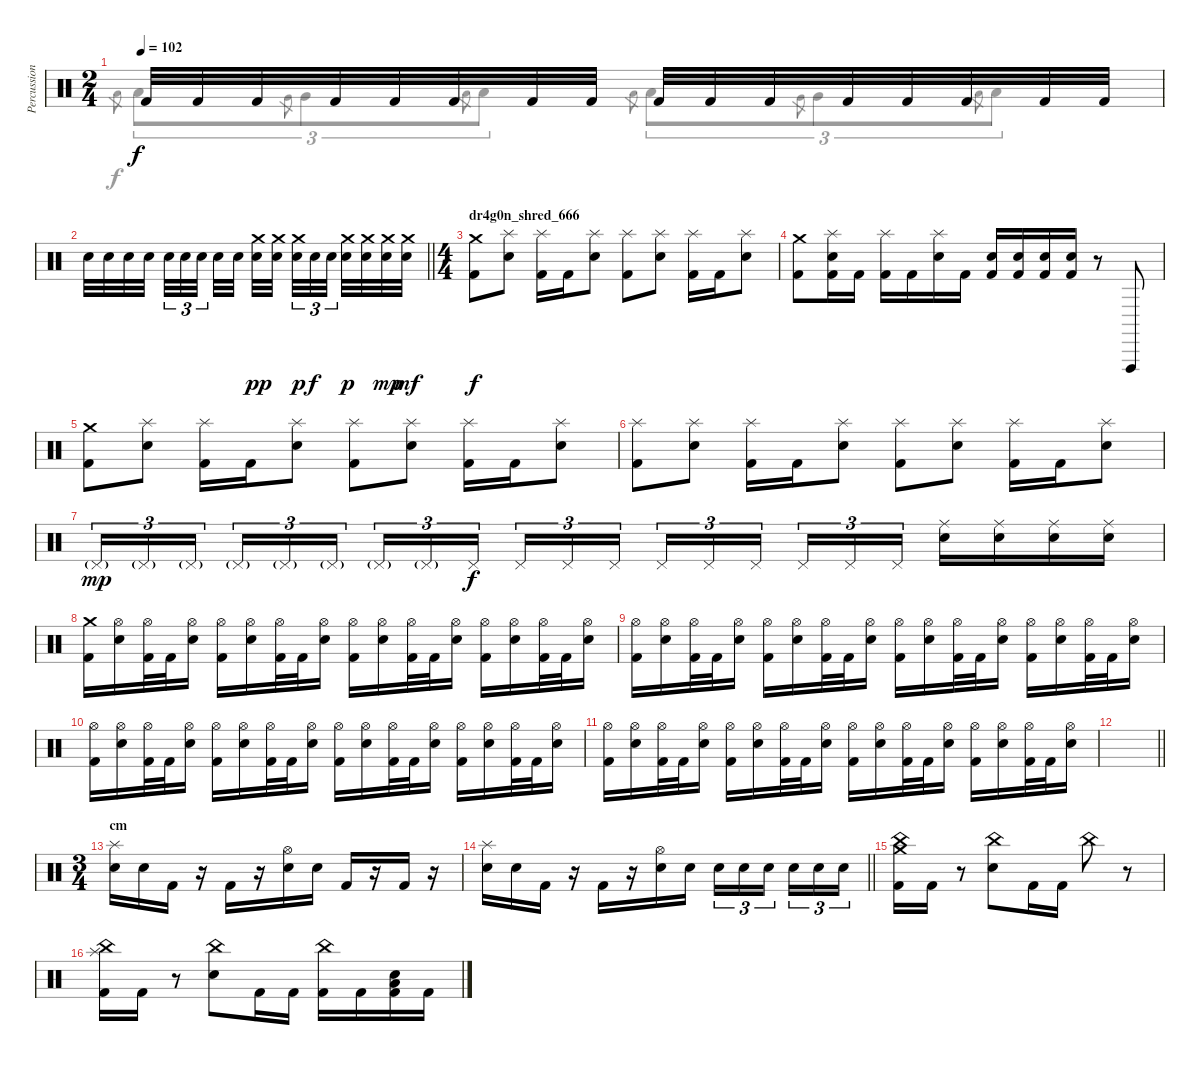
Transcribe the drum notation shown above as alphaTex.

\track ("Percussion" "Percussion") {instrument percussion}
\staff {score}
\articulation defaults
\voice
\ts (2 4)
\tempo 102
\clef neutral
\ks c "Kick (hit) 2".32{dy f} "Kick (hit) 2".32 "Kick (hit) 2".32 "Kick (hit) 2".32 "Kick (hit) 2".32 "Kick (hit) 2".32 "Kick (hit) 2".32 "Kick (hit) 2".32 "Kick (hit) 2".32 "Kick (hit) 2".32 "Kick (hit) 2".32 "Kick (hit) 2".32 "Kick (hit) 2".32 "Kick (hit) 2".32 "Kick (hit) 2".32 "Kick (hit) 2".32
|
\barLineRight lightlight "Electric Snare (hit)".32 "Electric Snare (hit)".32 "Electric Snare (hit)".32 "Electric Snare (hit)".32{beam splitsecondary} "Electric Snare (hit)".32{tu (3 2)} "Electric Snare (hit)".32{tu (3 2)} "Electric Snare (hit)".32{tu (3 2) beam splitsecondary} "Electric Snare (hit)".32 "Electric Snare (hit)".32
("Crash medium (hit)" "Electric Snare (hit)").32{dy pp} ("Crash medium (hit)" "Electric Snare (hit)").32{beam splitsecondary} ("Crash medium (hit)" "Electric Snare (hit)").32{tu (3 2) dy p} "Electric Snare (hit)".32{tu (3 2) dy f} "Electric Snare (hit)".32{tu (3 2) beam splitsecondary} ("Crash medium (hit)" "Electric Snare (hit)").32{dy p} ("Crash medium (hit)" "Electric Snare (hit)").32 ("Crash medium (hit)" "Electric Snare (hit)").32{dy mp} ("Crash medium (hit)" "Electric Snare (hit)").32{dy mf} |
\ts (4 4)
\section ("" "dr4g0n_shred_666")
("Crash medium (hit)" "Kick (hit) 2").8{dy f} ("Splash (hit)" "Electric Snare (hit)").8 ("Splash (hit)" "Kick (hit) 2").16 "Kick (hit) 2".16 ("Splash (hit)" "Electric Snare (hit)").8 ("Splash (hit)" "Kick (hit) 2").8 ("Splash (hit)" "Electric Snare (hit)").8 ("Splash (hit)" "Kick (hit) 2").16 "Kick (hit) 2".16 ("Splash (hit)" "Electric Snare (hit)").8 |
("Crash medium (hit)" "Kick (hit) 2").8 ("Splash (hit)" "Electric Snare (hit)" "Kick (hit) 2").16 "Kick (hit) 2".16 ("Splash (hit)" "Kick (hit) 2").16 "Kick (hit) 2".16 ("Splash (hit)" "Electric Snare (hit)").16 "Kick (hit) 2".16 ("Electric Snare (hit)" "Kick (hit) 2").16 ("Electric Snare (hit)" "Kick (hit) 2").16 ("Electric Snare (hit)" "Kick (hit) 2").16 ("Electric Snare (hit)" "Kick (hit) 2").16 r.8 "Vibraslap (hit)".8 |
("Crash medium (hit)" "Kick (hit) 2").8 ("Splash (hit)" "Electric Snare (hit)").8 ("Splash (hit)" "Kick (hit) 2").16 "Kick (hit) 2".16 ("Splash (hit)" "Electric Snare (hit)").8 ("Splash (hit)" "Kick (hit) 2").8 ("Splash (hit)" "Electric Snare (hit)").8 ("Splash (hit)" "Kick (hit) 2").16 "Kick (hit) 2".16 ("Splash (hit)" "Electric Snare (hit)").8 |
("Splash (hit)" "Kick (hit) 2").8 ("Splash (hit)" "Electric Snare (hit)").8 ("Splash (hit)" "Kick (hit) 2").16 "Kick (hit) 2".16 ("Splash (hit)" "Electric Snare (hit)").8 ("Splash (hit)" "Kick (hit) 2").8 ("Splash (hit)" "Electric Snare (hit)").8 ("Splash (hit)" "Kick (hit) 2").16 "Kick (hit) 2".16 ("Splash (hit)" "Electric Snare (hit)").8 |
"Pedal Hi-Hat (hit)"{g}.16{tu (3 2) dy mp} "Pedal Hi-Hat (hit)"{g}.16{tu (3 2)} "Pedal Hi-Hat (hit)"{g}.16{tu (3 2) beam splitsecondary} "Pedal Hi-Hat (hit)"{g}.16{tu (3 2)} "Pedal Hi-Hat (hit)"{g}.16{tu (3 2)} "Pedal Hi-Hat (hit)"{g}.16{tu (3 2)} "Pedal Hi-Hat (hit)"{g}.16{tu (3 2)} "Pedal Hi-Hat (hit)"{g}.16{tu (3 2)} "Pedal Hi-Hat (hit)".16{tu (3 2) dy f beam splitsecondary} "Pedal Hi-Hat (hit)".16{tu (3 2)} "Pedal Hi-Hat (hit)".16{tu (3 2)} "Pedal Hi-Hat (hit)".16{tu (3 2)} "Pedal Hi-Hat (hit)".16{tu (3 2)} "Pedal Hi-Hat (hit)".16{tu (3 2)} "Pedal Hi-Hat (hit)".16{tu (3 2) beam splitsecondary} "Pedal Hi-Hat (hit)".16{tu (3 2)} "Pedal Hi-Hat (hit)".16{tu (3 2)} "Pedal Hi-Hat (hit)".16{tu (3 2)} ("Ride (middle)" "Electric Snare (hit)").16 ("Ride (middle)" "Electric Snare (hit)").16 ("Ride (middle)" "Electric Snare (hit)").16 ("Ride (middle)" "Electric Snare (hit)").16 |
("Crash medium (hit)" "Kick (hit) 2").16 ("Hi-Hat (open)" "Electric Snare (hit)").16 ("Hi-Hat (open)" "Kick (hit) 2").32 "Kick (hit) 2".32 ("Hi-Hat (open)" "Electric Snare (hit)").16 ("Hi-Hat (open)" "Kick (hit) 2").16 ("Hi-Hat (open)" "Electric Snare (hit)").16 ("Hi-Hat (open)" "Kick (hit) 2").32 "Kick (hit) 2".32 ("Hi-Hat (open)" "Electric Snare (hit)").16 ("Hi-Hat (open)" "Kick (hit) 2").16 ("Hi-Hat (open)" "Electric Snare (hit)").16 ("Hi-Hat (open)" "Kick (hit) 2").32 "Kick (hit) 2".32 ("Hi-Hat (open)" "Electric Snare (hit)").16 ("Hi-Hat (open)" "Kick (hit) 2").16 ("Hi-Hat (open)" "Electric Snare (hit)").16 ("Hi-Hat (open)" "Kick (hit) 2").32 "Kick (hit) 2".32 ("Hi-Hat (open)" "Electric Snare (hit)").16 |
("Hi-Hat (open)" "Kick (hit) 2").16 ("Hi-Hat (open)" "Electric Snare (hit)").16 ("Hi-Hat (open)" "Kick (hit) 2").32 "Kick (hit) 2".32 ("Hi-Hat (open)" "Electric Snare (hit)").16 ("Hi-Hat (open)" "Kick (hit) 2").16 ("Hi-Hat (open)" "Electric Snare (hit)").16 ("Hi-Hat (open)" "Kick (hit) 2").32 "Kick (hit) 2".32 ("Hi-Hat (open)" "Electric Snare (hit)").16 ("Hi-Hat (open)" "Kick (hit) 2").16 ("Hi-Hat (open)" "Electric Snare (hit)").16 ("Hi-Hat (open)" "Kick (hit) 2").32 "Kick (hit) 2".32 ("Hi-Hat (open)" "Electric Snare (hit)").16 ("Hi-Hat (open)" "Kick (hit) 2").16 ("Hi-Hat (open)" "Electric Snare (hit)").16 ("Hi-Hat (open)" "Kick (hit) 2").32 "Kick (hit) 2".32 ("Hi-Hat (open)" "Electric Snare (hit)").16 |
("Hi-Hat (open)" "Kick (hit) 2").16 ("Hi-Hat (open)" "Electric Snare (hit)").16 ("Hi-Hat (open)" "Kick (hit) 2").32 "Kick (hit) 2".32 ("Hi-Hat (open)" "Electric Snare (hit)").16 ("Hi-Hat (open)" "Kick (hit) 2").16 ("Hi-Hat (open)" "Electric Snare (hit)").16 ("Hi-Hat (open)" "Kick (hit) 2").32 "Kick (hit) 2".32 ("Hi-Hat (open)" "Electric Snare (hit)").16 ("Hi-Hat (open)" "Kick (hit) 2").16 ("Hi-Hat (open)" "Electric Snare (hit)").16 ("Hi-Hat (open)" "Kick (hit) 2").32 "Kick (hit) 2".32 ("Hi-Hat (open)" "Electric Snare (hit)").16 ("Hi-Hat (open)" "Kick (hit) 2").16 ("Hi-Hat (open)" "Electric Snare (hit)").16 ("Hi-Hat (open)" "Kick (hit) 2").32 "Kick (hit) 2".32 ("Hi-Hat (open)" "Electric Snare (hit)").16 |
("Hi-Hat (open)" "Kick (hit) 2").16 ("Hi-Hat (open)" "Electric Snare (hit)").16 ("Hi-Hat (open)" "Kick (hit) 2").32 "Kick (hit) 2".32 ("Hi-Hat (open)" "Electric Snare (hit)").16 ("Hi-Hat (open)" "Kick (hit) 2").16 ("Hi-Hat (open)" "Electric Snare (hit)").16 ("Hi-Hat (open)" "Kick (hit) 2").32 "Kick (hit) 2".32 ("Hi-Hat (open)" "Electric Snare (hit)").16 ("Hi-Hat (open)" "Kick (hit) 2").16 ("Hi-Hat (open)" "Electric Snare (hit)").16 ("Hi-Hat (open)" "Kick (hit) 2").32 "Kick (hit) 2".32 ("Hi-Hat (open)" "Electric Snare (hit)").16 ("Hi-Hat (open)" "Kick (hit) 2").16 ("Hi-Hat (open)" "Electric Snare (hit)").16 ("Hi-Hat (open)" "Kick (hit) 2").32 "Kick (hit) 2".32 ("Hi-Hat (open)" "Electric Snare (hit)").16 |
\barLineRight lightlight
|
\ts (3 4)
\section ("" "cm")
("Splash (hit)" "Electric Snare (hit)").16 "Electric Snare (hit)".16 "Kick (hit) 2".16 r.16 "Kick (hit) 2".16 r.16 ("Hi-Hat (open)" "Electric Snare (hit)").16 "Electric Snare (hit)".16 "Kick (hit) 2".16 r.16 "Kick (hit) 2".16 r.16 |
\barLineRight lightlight
("Splash (hit)" "Electric Snare (hit)").16 "Electric Snare (hit)".16 "Kick (hit) 2".16 r.16 "Kick (hit) 2".16 r.16 ("Hi-Hat (open)" "Electric Snare (hit)").16 "Electric Snare (hit)".16 "Electric Snare (hit)".16{tu (3 2)} "Electric Snare (hit)".16{tu (3 2)} "Electric Snare (hit)".16{tu (3 2) beam splitsecondary} "Electric Snare (hit)".16{tu (3 2)} "Electric Snare (hit)".16{tu (3 2)} "Electric Snare (hit)".16{tu (3 2)} |
("Crash medium (hit)" "China (hit)" "Kick (hit) 2").16 "Kick (hit) 2".16 r.8 ("China (hit)" "Electric Snare (hit)").8 "Kick (hit) 2".16 "Kick (hit) 2".16 "China (hit)".8 r.8 |
("China (hit)" "Splash (hit)" "Kick (hit) 2").16 "Kick (hit) 2".16 r.8 ("China (hit)" "Electric Snare (hit)").8 "Kick (hit) 2".16 "Kick (hit) 2".16 ("China (hit)" "Kick (hit) 2").16 "Kick (hit) 2".16 ("Low Floor Tom (hit)" "Electric Snare (hit)" "Kick (hit) 2").16 "Kick (hit) 2".16
\voice
\clef neutral
\ottava regular
\simile none
\ks c "Low Tom (hit)".8{gr dy f} "Low Tom (hit)".8{tu (3 2) bu 60} "Very Low Tom (hit)".8{gr} "Very Low Tom (hit)".8{tu (3 2)} "Low Floor Tom (hit)".8{gr} "Low Floor Tom (hit)".8{tu (3 2)} "Low Tom (hit)".8{gr} "Low Tom (hit)".8{tu (3 2)} "Very Low Tom (hit)".8{gr} "Very Low Tom (hit)".8{tu (3 2)} "Low Floor Tom (hit)".8{gr} "Low Floor Tom (hit)".8{tu (3 2)}
|
\barLineRight lightlight
|
|
|
|
|
|
|
|
|
|
\barLineRight lightlight
|
|
\barLineRight lightlight
|
|
